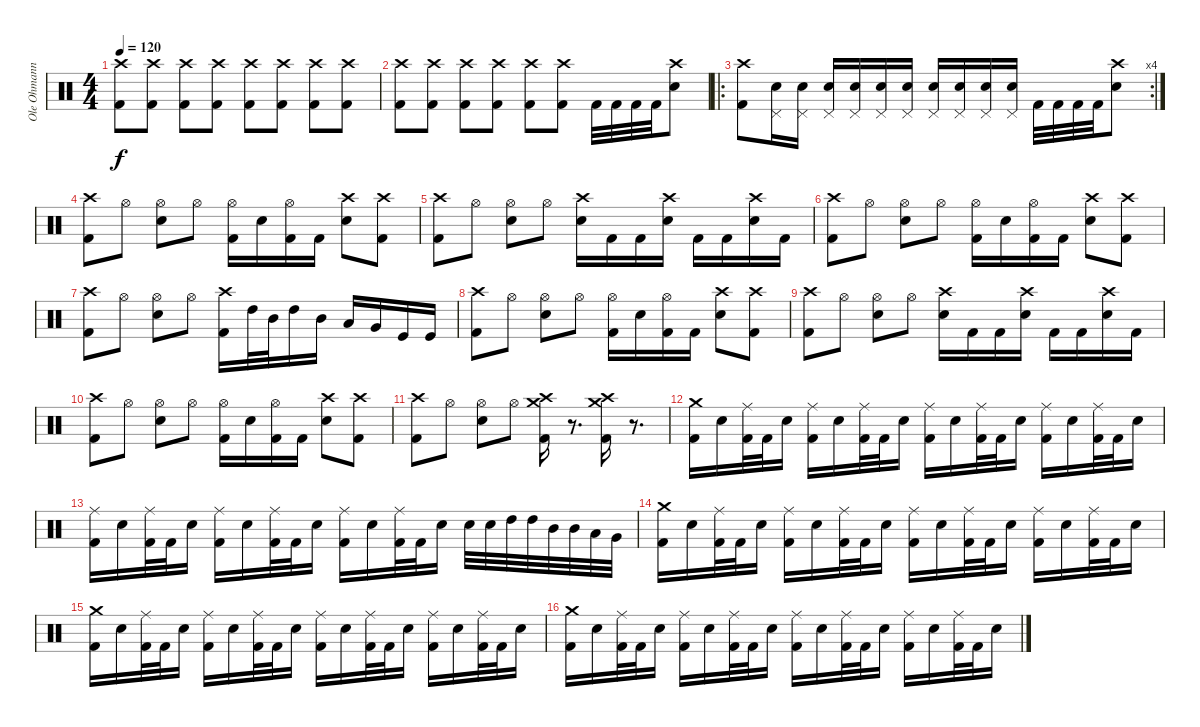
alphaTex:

\track ("Ole Ohmann" "Ole Ohmann") {instrument percussion}
\staff {score}
\articulation defaults
\ts (4 4)
\tempo 120
\clef neutral
\ks c
("Crash high (hit)" "Kick (hit) 2").8{dy f} ("Crash high (hit)" "Kick (hit) 2").8 ("Crash high (hit)" "Kick (hit) 2").8 ("Crash high (hit)" "Kick (hit) 2").8 ("Crash high (hit)" "Kick (hit) 2").8 ("Crash high (hit)" "Kick (hit) 2").8 ("Crash high (hit)" "Kick (hit) 2").8 ("Crash high (hit)" "Kick (hit) 2").8 |
("Crash high (hit)" "Kick (hit) 2").8 ("Crash high (hit)" "Kick (hit) 2").8 ("Crash high (hit)" "Kick (hit) 2").8 ("Crash high (hit)" "Kick (hit) 2").8 ("Crash high (hit)" "Kick (hit) 2").8 ("Crash high (hit)" "Kick (hit) 2").8 "Kick (hit) 2".32 "Kick (hit) 2".32 "Kick (hit) 2".32 "Kick (hit) 2".32 ("Electric Snare (hit)" "Crash high (hit)").8 |
\ro
\rc 4
("Crash high (hit)" "Kick (hit) 2").8 ("Pedal Hi-Hat (hit)" "Electric Snare (hit)").16 ("Pedal Hi-Hat (hit)" "Electric Snare (hit)").16 ("Pedal Hi-Hat (hit)" "Electric Snare (hit)").16 ("Pedal Hi-Hat (hit)" "Electric Snare (hit)").16 ("Pedal Hi-Hat (hit)" "Electric Snare (hit)").16 ("Pedal Hi-Hat (hit)" "Electric Snare (hit)").16 ("Pedal Hi-Hat (hit)" "Electric Snare (hit)").16 ("Pedal Hi-Hat (hit)" "Electric Snare (hit)").16 ("Pedal Hi-Hat (hit)" "Electric Snare (hit)").16 ("Pedal Hi-Hat (hit)" "Electric Snare (hit)").16 "Kick (hit) 2".32 "Kick (hit) 2".32 "Kick (hit) 2".32 "Kick (hit) 2".32 ("Electric Snare (hit)" "Crash high (hit)").8 |
("Crash high (hit)" "Kick (hit) 2").8 "Hi-Hat (open)".8 ("Hi-Hat (open)" "Electric Snare (hit)").8 "Hi-Hat (open)".8 ("Hi-Hat (open)" "Kick (hit) 2").16 "Electric Snare (hit)".16 ("Hi-Hat (open)" "Kick (hit) 2").16 "Kick (hit) 2".16 ("Crash high (hit)" "Electric Snare (hit)").8 ("Crash high (hit)" "Kick (hit) 2").8 |
("Crash high (hit)" "Kick (hit) 2").8 "Hi-Hat (open)".8 ("Hi-Hat (open)" "Electric Snare (hit)").8 "Hi-Hat (open)".8 ("Crash high (hit)" "Electric Snare (hit)").16 "Kick (hit) 2".16 "Kick (hit) 2".16 ("Crash high (hit)" "Electric Snare (hit)").16 "Kick (hit) 2".16 "Kick (hit) 2".16 ("Crash high (hit)" "Electric Snare (hit)").16 "Kick (hit) 2".16 |
("Crash high (hit)" "Kick (hit) 2").8 "Hi-Hat (open)".8 ("Hi-Hat (open)" "Electric Snare (hit)").8 "Hi-Hat (open)".8 ("Hi-Hat (open)" "Kick (hit) 2").16 "Electric Snare (hit)".16 ("Hi-Hat (open)" "Kick (hit) 2").16 "Kick (hit) 2".16 ("Crash high (hit)" "Electric Snare (hit)").8 ("Crash high (hit)" "Kick (hit) 2").8 |
("Crash high (hit)" "Kick (hit) 2").8 "Hi-Hat (open)".8 ("Hi-Hat (open)" "Electric Snare (hit)").8 "Hi-Hat (open)".8 ("Crash high (hit)" "Kick (hit) 2").16 "High Tom (hit)".32 "Mid Tom (hit)".32 "High Tom (hit)".16 "Mid Tom (hit)".16 "Low Tom (hit)".16 "Very Low Tom (hit)".16 "Kick (hit)".16 "Kick (hit)".16 |
("Crash high (hit)" "Kick (hit) 2").8 "Hi-Hat (open)".8 ("Hi-Hat (open)" "Electric Snare (hit)").8 "Hi-Hat (open)".8 ("Hi-Hat (open)" "Kick (hit) 2").16 "Electric Snare (hit)".16 ("Hi-Hat (open)" "Kick (hit) 2").16 "Kick (hit) 2".16 ("Crash high (hit)" "Electric Snare (hit)").8 ("Crash high (hit)" "Kick (hit) 2").8 |
("Crash high (hit)" "Kick (hit) 2").8 "Hi-Hat (open)".8 ("Hi-Hat (open)" "Electric Snare (hit)").8 "Hi-Hat (open)".8 ("Crash high (hit)" "Electric Snare (hit)").16 "Kick (hit) 2".16 "Kick (hit) 2".16 ("Crash high (hit)" "Electric Snare (hit)").16 "Kick (hit) 2".16 "Kick (hit) 2".16 ("Crash high (hit)" "Electric Snare (hit)").16 "Kick (hit) 2".16 |
("Crash high (hit)" "Kick (hit) 2").8 "Hi-Hat (open)".8 ("Hi-Hat (open)" "Electric Snare (hit)").8 "Hi-Hat (open)".8 ("Hi-Hat (open)" "Kick (hit) 2").16 "Electric Snare (hit)".16 ("Hi-Hat (open)" "Kick (hit) 2").16 "Kick (hit) 2".16 ("Crash high (hit)" "Electric Snare (hit)").8 ("Crash high (hit)" "Kick (hit) 2").8 |
("Crash high (hit)" "Kick (hit) 2").8 "Hi-Hat (open)".8 ("Hi-Hat (open)" "Electric Snare (hit)").8 "Hi-Hat (open)".8 ("Crash high (hit)" "Crash medium (hit)" "Kick (hit) 2").16 r.8{d} ("Crash medium (hit)" "Crash high (hit)" "Kick (hit) 2").16 r.8{d} |
("Crash medium (hit)" "Kick (hit) 2").16 "Electric Snare (hit)".16 ("Ride (middle)" "Kick (hit) 2").32 "Kick (hit) 2".32 "Electric Snare (hit)".16 ("Ride (middle)" "Kick (hit) 2").16 "Electric Snare (hit)".16 ("Ride (middle)" "Kick (hit) 2").32 "Kick (hit) 2".32 "Electric Snare (hit)".16 ("Ride (middle)" "Kick (hit) 2").16 "Electric Snare (hit)".16 ("Ride (middle)" "Kick (hit) 2").32 "Kick (hit) 2".32 "Electric Snare (hit)".16 ("Ride (middle)" "Kick (hit) 2").16 "Electric Snare (hit)".16 ("Ride (middle)" "Kick (hit) 2").32 "Kick (hit) 2".32 "Electric Snare (hit)".16 |
("Ride (middle)" "Kick (hit) 2").16 "Electric Snare (hit)".16 ("Ride (middle)" "Kick (hit) 2").32 "Kick (hit) 2".32 "Electric Snare (hit)".16 ("Ride (middle)" "Kick (hit) 2").16 "Electric Snare (hit)".16 ("Ride (middle)" "Kick (hit) 2").32 "Kick (hit) 2".32 "Electric Snare (hit)".16 ("Ride (middle)" "Kick (hit) 2").16 "Electric Snare (hit)".16 ("Ride (middle)" "Kick (hit) 2").32 "Kick (hit) 2".32 "Electric Snare (hit)".16 "Electric Snare (hit)".32 "Electric Snare (hit)".32 "High Tom (hit)".32 "High Tom (hit)".32 "Mid Tom (hit)".32 "Mid Tom (hit)".32 "Low Tom (hit)".32 "Very Low Tom (hit)".32 |
("Crash medium (hit)" "Kick (hit) 2").16 "Electric Snare (hit)".16 ("Ride (middle)" "Kick (hit) 2").32 "Kick (hit) 2".32 "Electric Snare (hit)".16 ("Ride (middle)" "Kick (hit) 2").16 "Electric Snare (hit)".16 ("Ride (middle)" "Kick (hit) 2").32 "Kick (hit) 2".32 "Electric Snare (hit)".16 ("Ride (middle)" "Kick (hit) 2").16 "Electric Snare (hit)".16 ("Ride (middle)" "Kick (hit) 2").32 "Kick (hit) 2".32 "Electric Snare (hit)".16 ("Ride (middle)" "Kick (hit) 2").16 "Electric Snare (hit)".16 ("Ride (middle)" "Kick (hit) 2").32 "Kick (hit) 2".32 "Electric Snare (hit)".16 |
("Crash medium (hit)" "Kick (hit) 2").16 "Electric Snare (hit)".16 ("Ride (middle)" "Kick (hit) 2").32 "Kick (hit) 2".32 "Electric Snare (hit)".16 ("Ride (middle)" "Kick (hit) 2").16 "Electric Snare (hit)".16 ("Ride (middle)" "Kick (hit) 2").32 "Kick (hit) 2".32 "Electric Snare (hit)".16 ("Ride (middle)" "Kick (hit) 2").16 "Electric Snare (hit)".16 ("Ride (middle)" "Kick (hit) 2").32 "Kick (hit) 2".32 "Electric Snare (hit)".16 ("Ride (middle)" "Kick (hit) 2").16 "Electric Snare (hit)".16 ("Ride (middle)" "Kick (hit) 2").32 "Kick (hit) 2".32 "Electric Snare (hit)".16 |
("Crash medium (hit)" "Kick (hit) 2").16 "Electric Snare (hit)".16 ("Ride (middle)" "Kick (hit) 2").32 "Kick (hit) 2".32 "Electric Snare (hit)".16 ("Ride (middle)" "Kick (hit) 2").16 "Electric Snare (hit)".16 ("Ride (middle)" "Kick (hit) 2").32 "Kick (hit) 2".32 "Electric Snare (hit)".16 ("Ride (middle)" "Kick (hit) 2").16 "Electric Snare (hit)".16 ("Ride (middle)" "Kick (hit) 2").32 "Kick (hit) 2".32 "Electric Snare (hit)".16 ("Ride (middle)" "Kick (hit) 2").16 "Electric Snare (hit)".16 ("Ride (middle)" "Kick (hit) 2").32 "Kick (hit) 2".32 "Electric Snare (hit)".16
